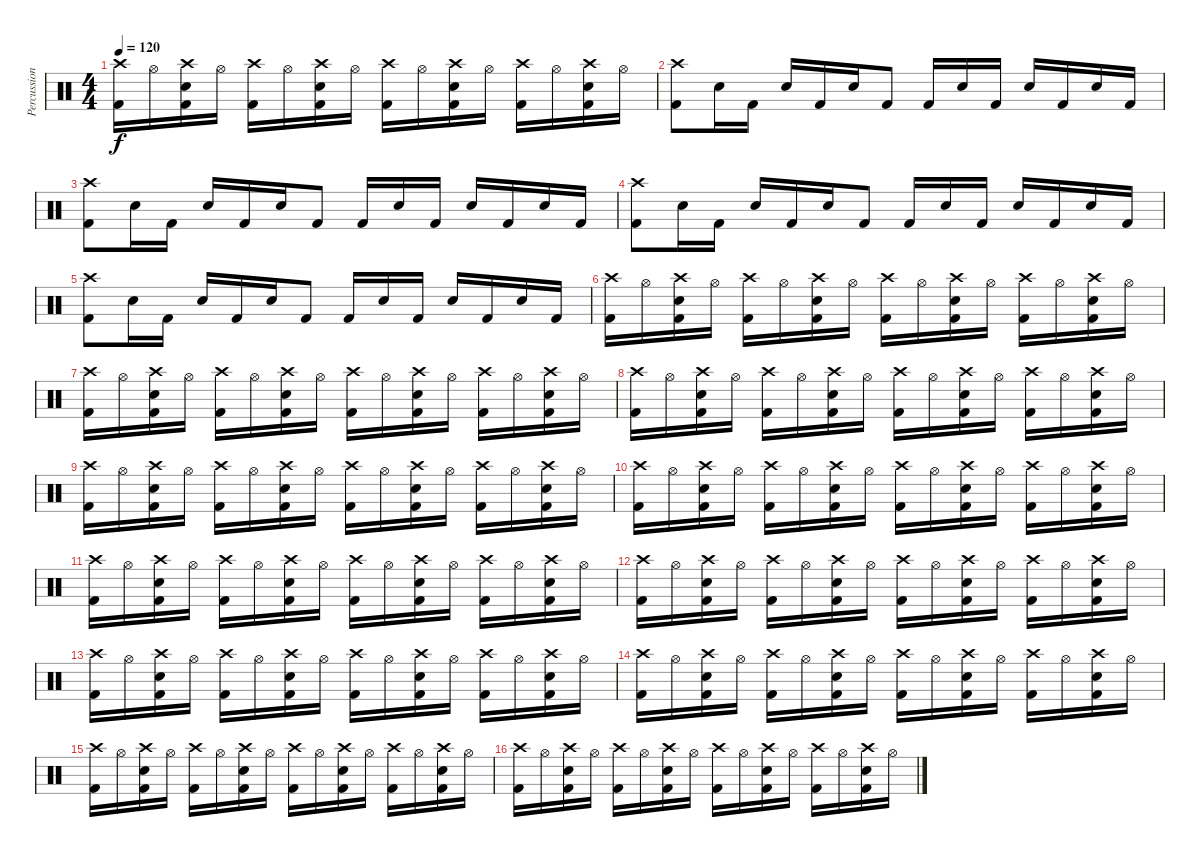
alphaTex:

\track ("Percussion" "Percussion") {instrument percussion}
\staff {score}
\articulation defaults
\ts (4 4)
\tempo 120
\clef neutral
\ks c
("Crash high (hit)" "Kick (hit) 2").16{dy f} "Hi-Hat (open)".16 ("Crash high (hit)" "Electric Snare (hit)" "Kick (hit) 2").16 "Hi-Hat (open)".16 ("Crash high (hit)" "Kick (hit) 2").16 "Hi-Hat (open)".16 ("Crash high (hit)" "Electric Snare (hit)" "Kick (hit) 2").16 "Hi-Hat (open)".16 ("Crash high (hit)" "Kick (hit) 2").16 "Hi-Hat (open)".16 ("Crash high (hit)" "Electric Snare (hit)" "Kick (hit) 2").16 "Hi-Hat (open)".16 ("Crash high (hit)" "Kick (hit) 2").16 "Hi-Hat (open)".16 ("Crash high (hit)" "Electric Snare (hit)" "Kick (hit) 2").16 "Hi-Hat (open)".16 |
("Crash high (hit)" "Kick (hit) 2").8 "Electric Snare (hit)".16 "Kick (hit) 2".16 "Electric Snare (hit)".16 "Kick (hit) 2".16 "Electric Snare (hit)".16 "Kick (hit) 2".8 "Kick (hit) 2".16 "Electric Snare (hit)".16 "Kick (hit) 2".16 "Electric Snare (hit)".16 "Kick (hit) 2".16 "Electric Snare (hit)".16 "Kick (hit) 2".16 |
("Crash high (hit)" "Kick (hit) 2").8 "Electric Snare (hit)".16 "Kick (hit) 2".16 "Electric Snare (hit)".16 "Kick (hit) 2".16 "Electric Snare (hit)".16 "Kick (hit) 2".8 "Kick (hit) 2".16 "Electric Snare (hit)".16 "Kick (hit) 2".16 "Electric Snare (hit)".16 "Kick (hit) 2".16 "Electric Snare (hit)".16 "Kick (hit) 2".16 |
("Crash high (hit)" "Kick (hit) 2").8 "Electric Snare (hit)".16 "Kick (hit) 2".16 "Electric Snare (hit)".16 "Kick (hit) 2".16 "Electric Snare (hit)".16 "Kick (hit) 2".8 "Kick (hit) 2".16 "Electric Snare (hit)".16 "Kick (hit) 2".16 "Electric Snare (hit)".16 "Kick (hit) 2".16 "Electric Snare (hit)".16 "Kick (hit) 2".16 |
("Crash high (hit)" "Kick (hit) 2").8 "Electric Snare (hit)".16 "Kick (hit) 2".16 "Electric Snare (hit)".16 "Kick (hit) 2".16 "Electric Snare (hit)".16 "Kick (hit) 2".8 "Kick (hit) 2".16 "Electric Snare (hit)".16 "Kick (hit) 2".16 "Electric Snare (hit)".16 "Kick (hit) 2".16 "Electric Snare (hit)".16 "Kick (hit) 2".16 |
("Crash high (hit)" "Kick (hit) 2").16 "Hi-Hat (open)".16 ("Crash high (hit)" "Electric Snare (hit)" "Kick (hit) 2").16 "Hi-Hat (open)".16 ("Crash high (hit)" "Kick (hit) 2").16 "Hi-Hat (open)".16 ("Crash high (hit)" "Electric Snare (hit)" "Kick (hit) 2").16 "Hi-Hat (open)".16 ("Crash high (hit)" "Kick (hit) 2").16 "Hi-Hat (open)".16 ("Crash high (hit)" "Electric Snare (hit)" "Kick (hit) 2").16 "Hi-Hat (open)".16 ("Crash high (hit)" "Kick (hit) 2").16 "Hi-Hat (open)".16 ("Crash high (hit)" "Electric Snare (hit)" "Kick (hit) 2").16 "Hi-Hat (open)".16 |
("Crash high (hit)" "Kick (hit) 2").16 "Hi-Hat (open)".16 ("Crash high (hit)" "Electric Snare (hit)" "Kick (hit) 2").16 "Hi-Hat (open)".16 ("Crash high (hit)" "Kick (hit) 2").16 "Hi-Hat (open)".16 ("Crash high (hit)" "Electric Snare (hit)" "Kick (hit) 2").16 "Hi-Hat (open)".16 ("Crash high (hit)" "Kick (hit) 2").16 "Hi-Hat (open)".16 ("Crash high (hit)" "Electric Snare (hit)" "Kick (hit) 2").16 "Hi-Hat (open)".16 ("Crash high (hit)" "Kick (hit) 2").16 "Hi-Hat (open)".16 ("Crash high (hit)" "Electric Snare (hit)" "Kick (hit) 2").16 "Hi-Hat (open)".16 |
("Crash high (hit)" "Kick (hit) 2").16 "Hi-Hat (open)".16 ("Crash high (hit)" "Electric Snare (hit)" "Kick (hit) 2").16 "Hi-Hat (open)".16 ("Crash high (hit)" "Kick (hit) 2").16 "Hi-Hat (open)".16 ("Crash high (hit)" "Electric Snare (hit)" "Kick (hit) 2").16 "Hi-Hat (open)".16 ("Crash high (hit)" "Kick (hit) 2").16 "Hi-Hat (open)".16 ("Crash high (hit)" "Electric Snare (hit)" "Kick (hit) 2").16 "Hi-Hat (open)".16 ("Crash high (hit)" "Kick (hit) 2").16 "Hi-Hat (open)".16 ("Crash high (hit)" "Electric Snare (hit)" "Kick (hit) 2").16 "Hi-Hat (open)".16 |
("Crash high (hit)" "Kick (hit) 2").16 "Hi-Hat (open)".16 ("Crash high (hit)" "Electric Snare (hit)" "Kick (hit) 2").16 "Hi-Hat (open)".16 ("Crash high (hit)" "Kick (hit) 2").16 "Hi-Hat (open)".16 ("Crash high (hit)" "Electric Snare (hit)" "Kick (hit) 2").16 "Hi-Hat (open)".16 ("Crash high (hit)" "Kick (hit) 2").16 "Hi-Hat (open)".16 ("Crash high (hit)" "Electric Snare (hit)" "Kick (hit) 2").16 "Hi-Hat (open)".16 ("Crash high (hit)" "Kick (hit) 2").16 "Hi-Hat (open)".16 ("Crash high (hit)" "Electric Snare (hit)" "Kick (hit) 2").16 "Hi-Hat (open)".16 |
("Crash high (hit)" "Kick (hit) 2").16 "Hi-Hat (open)".16 ("Crash high (hit)" "Electric Snare (hit)" "Kick (hit) 2").16 "Hi-Hat (open)".16 ("Crash high (hit)" "Kick (hit) 2").16 "Hi-Hat (open)".16 ("Crash high (hit)" "Electric Snare (hit)" "Kick (hit) 2").16 "Hi-Hat (open)".16 ("Crash high (hit)" "Kick (hit) 2").16 "Hi-Hat (open)".16 ("Crash high (hit)" "Electric Snare (hit)" "Kick (hit) 2").16 "Hi-Hat (open)".16 ("Crash high (hit)" "Kick (hit) 2").16 "Hi-Hat (open)".16 ("Crash high (hit)" "Electric Snare (hit)" "Kick (hit) 2").16 "Hi-Hat (open)".16 |
("Crash high (hit)" "Kick (hit) 2").16 "Hi-Hat (open)".16 ("Crash high (hit)" "Electric Snare (hit)" "Kick (hit) 2").16 "Hi-Hat (open)".16 ("Crash high (hit)" "Kick (hit) 2").16 "Hi-Hat (open)".16 ("Crash high (hit)" "Electric Snare (hit)" "Kick (hit) 2").16 "Hi-Hat (open)".16 ("Crash high (hit)" "Kick (hit) 2").16 "Hi-Hat (open)".16 ("Crash high (hit)" "Electric Snare (hit)" "Kick (hit) 2").16 "Hi-Hat (open)".16 ("Crash high (hit)" "Kick (hit) 2").16 "Hi-Hat (open)".16 ("Crash high (hit)" "Electric Snare (hit)" "Kick (hit) 2").16 "Hi-Hat (open)".16 |
("Crash high (hit)" "Kick (hit) 2").16 "Hi-Hat (open)".16 ("Crash high (hit)" "Electric Snare (hit)" "Kick (hit) 2").16 "Hi-Hat (open)".16 ("Crash high (hit)" "Kick (hit) 2").16 "Hi-Hat (open)".16 ("Crash high (hit)" "Electric Snare (hit)" "Kick (hit) 2").16 "Hi-Hat (open)".16 ("Crash high (hit)" "Kick (hit) 2").16 "Hi-Hat (open)".16 ("Crash high (hit)" "Electric Snare (hit)" "Kick (hit) 2").16 "Hi-Hat (open)".16 ("Crash high (hit)" "Kick (hit) 2").16 "Hi-Hat (open)".16 ("Crash high (hit)" "Electric Snare (hit)" "Kick (hit) 2").16 "Hi-Hat (open)".16 |
("Crash high (hit)" "Kick (hit) 2").16 "Hi-Hat (open)".16 ("Crash high (hit)" "Electric Snare (hit)" "Kick (hit) 2").16 "Hi-Hat (open)".16 ("Crash high (hit)" "Kick (hit) 2").16 "Hi-Hat (open)".16 ("Crash high (hit)" "Electric Snare (hit)" "Kick (hit) 2").16 "Hi-Hat (open)".16 ("Crash high (hit)" "Kick (hit) 2").16 "Hi-Hat (open)".16 ("Crash high (hit)" "Electric Snare (hit)" "Kick (hit) 2").16 "Hi-Hat (open)".16 ("Crash high (hit)" "Kick (hit) 2").16 "Hi-Hat (open)".16 ("Crash high (hit)" "Electric Snare (hit)" "Kick (hit) 2").16 "Hi-Hat (open)".16 |
("Crash high (hit)" "Kick (hit) 2").16 "Hi-Hat (open)".16 ("Crash high (hit)" "Electric Snare (hit)" "Kick (hit) 2").16 "Hi-Hat (open)".16 ("Crash high (hit)" "Kick (hit) 2").16 "Hi-Hat (open)".16 ("Crash high (hit)" "Electric Snare (hit)" "Kick (hit) 2").16 "Hi-Hat (open)".16 ("Crash high (hit)" "Kick (hit) 2").16 "Hi-Hat (open)".16 ("Crash high (hit)" "Electric Snare (hit)" "Kick (hit) 2").16 "Hi-Hat (open)".16 ("Crash high (hit)" "Kick (hit) 2").16 "Hi-Hat (open)".16 ("Crash high (hit)" "Electric Snare (hit)" "Kick (hit) 2").16 "Hi-Hat (open)".16 |
("Crash high (hit)" "Kick (hit) 2").16 "Hi-Hat (open)".16 ("Crash high (hit)" "Electric Snare (hit)" "Kick (hit) 2").16 "Hi-Hat (open)".16 ("Crash high (hit)" "Kick (hit) 2").16 "Hi-Hat (open)".16 ("Crash high (hit)" "Electric Snare (hit)" "Kick (hit) 2").16 "Hi-Hat (open)".16 ("Crash high (hit)" "Kick (hit) 2").16 "Hi-Hat (open)".16 ("Crash high (hit)" "Electric Snare (hit)" "Kick (hit) 2").16 "Hi-Hat (open)".16 ("Crash high (hit)" "Kick (hit) 2").16 "Hi-Hat (open)".16 ("Crash high (hit)" "Electric Snare (hit)" "Kick (hit) 2").16 "Hi-Hat (open)".16 |
("Crash high (hit)" "Kick (hit) 2").16 "Hi-Hat (open)".16 ("Crash high (hit)" "Electric Snare (hit)" "Kick (hit) 2").16 "Hi-Hat (open)".16 ("Crash high (hit)" "Kick (hit) 2").16 "Hi-Hat (open)".16 ("Crash high (hit)" "Electric Snare (hit)" "Kick (hit) 2").16 "Hi-Hat (open)".16 ("Crash high (hit)" "Kick (hit) 2").16 "Hi-Hat (open)".16 ("Crash high (hit)" "Electric Snare (hit)" "Kick (hit) 2").16 "Hi-Hat (open)".16 ("Crash high (hit)" "Kick (hit) 2").16 "Hi-Hat (open)".16 ("Crash high (hit)" "Electric Snare (hit)" "Kick (hit) 2").16 "Hi-Hat (open)".16
